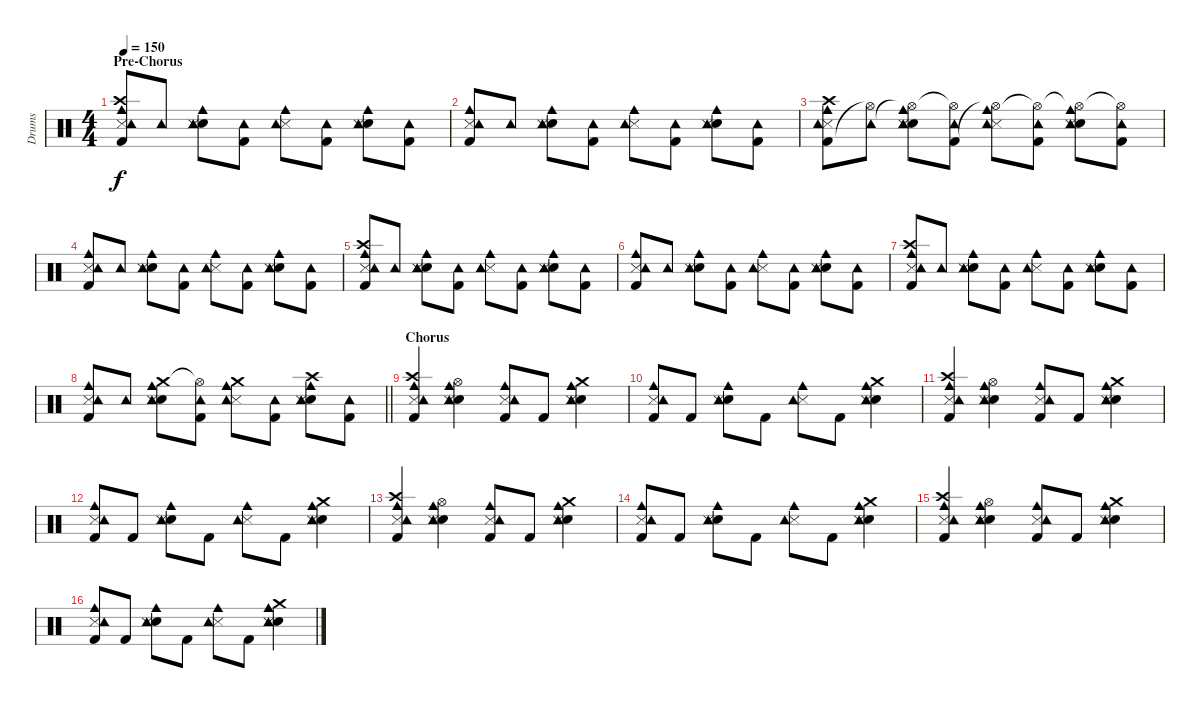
\track ("Drums" "Drums") {instrument percussion}
\staff {score}
\articulation defaults
\ts (4 4)
\section ("" "Pre-Chorus")
\tempo 150
\clef neutral
\ks c
("Kick (hit) 2" "Crash high (hit)" "Cowbell medium (hit)" "Snare (side stick) 3" "Tambourine (hit)").8{dy f} "Tambourine (hit)".8 ("Electric Snare (hit)" "Cowbell medium (hit)" "Snare (side stick) 3" "Tambourine (hit)").8 ("Kick (hit) 2" "Tambourine (hit)").8 ("Cowbell medium (hit)" "Snare (side stick) 3" "Tambourine (hit)").8 ("Kick (hit) 2" "Tambourine (hit)").8 ("Electric Snare (hit)" "Cowbell medium (hit)" "Snare (side stick) 3" "Tambourine (hit)").8 ("Kick (hit) 2" "Tambourine (hit)").8 |
("Kick (hit) 2" "Cowbell medium (hit)" "Snare (side stick) 3" "Tambourine (hit)").8 "Tambourine (hit)".8 ("Electric Snare (hit)" "Cowbell medium (hit)" "Snare (side stick) 3" "Tambourine (hit)").8 ("Kick (hit) 2" "Tambourine (hit)").8 ("Cowbell medium (hit)" "Snare (side stick) 3" "Tambourine (hit)").8 ("Kick (hit) 2" "Tambourine (hit)").8 ("Electric Snare (hit)" "Cowbell medium (hit)" "Snare (side stick) 3" "Tambourine (hit)").8 ("Kick (hit) 2" "Tambourine (hit)").8 |
("Kick (hit) 2" "Crash high (hit)" "Cowbell medium (hit)" "Snare (side stick) 3" "Tambourine (hit)").8 ("Hi-Hat (open)"{t} "Tambourine (hit)").8 ("Electric Snare (hit)" "Hi-Hat (open)"{t} "Cowbell medium (hit)" "Snare (side stick) 3" "Tambourine (hit)").8 ("Kick (hit) 2" "Hi-Hat (open)"{t} "Tambourine (hit)").8 ("Hi-Hat (open)"{t} "Cowbell medium (hit)" "Snare (side stick) 3" "Tambourine (hit)").8 ("Kick (hit) 2" "Hi-Hat (open)"{t} "Tambourine (hit)").8 ("Electric Snare (hit)" "Hi-Hat (open)"{t} "Cowbell medium (hit)" "Snare (side stick) 3" "Tambourine (hit)").8 ("Kick (hit) 2" "Hi-Hat (open)"{t} "Tambourine (hit)").8 |
("Kick (hit) 2" "Cowbell medium (hit)" "Snare (side stick) 3" "Tambourine (hit)").8 "Tambourine (hit)".8 ("Electric Snare (hit)" "Cowbell medium (hit)" "Snare (side stick) 3" "Tambourine (hit)").8 ("Kick (hit) 2" "Tambourine (hit)").8 ("Cowbell medium (hit)" "Snare (side stick) 3" "Tambourine (hit)").8 ("Kick (hit) 2" "Tambourine (hit)").8 ("Electric Snare (hit)" "Cowbell medium (hit)" "Snare (side stick) 3" "Tambourine (hit)").8 ("Kick (hit) 2" "Tambourine (hit)").8 |
("Kick (hit) 2" "Crash high (hit)" "Cowbell medium (hit)" "Snare (side stick) 3" "Tambourine (hit)").8 "Tambourine (hit)".8 ("Electric Snare (hit)" "Cowbell medium (hit)" "Snare (side stick) 3" "Tambourine (hit)").8 ("Kick (hit) 2" "Tambourine (hit)").8 ("Cowbell medium (hit)" "Snare (side stick) 3" "Tambourine (hit)").8 ("Kick (hit) 2" "Tambourine (hit)").8 ("Electric Snare (hit)" "Cowbell medium (hit)" "Snare (side stick) 3" "Tambourine (hit)").8 ("Kick (hit) 2" "Tambourine (hit)").8 |
("Kick (hit) 2" "Cowbell medium (hit)" "Snare (side stick) 3" "Tambourine (hit)").8 "Tambourine (hit)".8 ("Electric Snare (hit)" "Cowbell medium (hit)" "Snare (side stick) 3" "Tambourine (hit)").8 ("Kick (hit) 2" "Tambourine (hit)").8 ("Cowbell medium (hit)" "Snare (side stick) 3" "Tambourine (hit)").8 ("Kick (hit) 2" "Tambourine (hit)").8 ("Electric Snare (hit)" "Cowbell medium (hit)" "Snare (side stick) 3" "Tambourine (hit)").8 ("Kick (hit) 2" "Tambourine (hit)").8 |
("Kick (hit) 2" "Crash high (hit)" "Cowbell medium (hit)" "Snare (side stick) 3" "Tambourine (hit)").8 "Tambourine (hit)".8 ("Electric Snare (hit)" "Cowbell medium (hit)" "Snare (side stick) 3" "Tambourine (hit)").8 ("Kick (hit) 2" "Tambourine (hit)").8 ("Cowbell medium (hit)" "Snare (side stick) 3" "Tambourine (hit)").8 ("Kick (hit) 2" "Tambourine (hit)").8 ("Electric Snare (hit)" "Cowbell medium (hit)" "Snare (side stick) 3" "Tambourine (hit)").8 ("Kick (hit) 2" "Tambourine (hit)").8 |
\barLineRight lightlight
("Kick (hit) 2" "Cowbell medium (hit)" "Snare (side stick) 3" "Tambourine (hit)").8 "Tambourine (hit)".8 ("Electric Snare (hit)" "Crash medium (hit)" "Cowbell medium (hit)" "Snare (side stick) 3" "Tambourine (hit)").8 ("Kick (hit) 2" "Hi-Hat (open)"{t} "Tambourine (hit)").8 ("Crash medium (hit)" "Cowbell medium (hit)" "Snare (side stick) 3" "Tambourine (hit)").8 ("Kick (hit) 2" "Tambourine (hit)").8 ("Electric Snare (hit)" "Crash high (hit)" "Cowbell medium (hit)" "Snare (side stick) 3" "Tambourine (hit)").8 ("Kick (hit) 2" "Tambourine (hit)").8 |
\section ("" "Chorus")
("Kick (hit) 2" "Crash high (hit)" "Cowbell medium (hit)" "Snare (side stick) 3" "Tambourine (hit)").4 ("Electric Snare (hit)" "Hi-Hat (open)" "Cowbell medium (hit)" "Snare (side stick) 3" "Tambourine (hit)").4 ("Kick (hit) 2" "Cowbell medium (hit)" "Snare (side stick) 3" "Tambourine (hit)").8 "Kick (hit) 2".8 ("Electric Snare (hit)" "Crash medium (hit)" "Cowbell medium (hit)" "Snare (side stick) 3" "Tambourine (hit)").4 |
("Kick (hit) 2" "Cowbell medium (hit)" "Snare (side stick) 3" "Tambourine (hit)").8 "Kick (hit) 2".8 ("Electric Snare (hit)" "Cowbell medium (hit)" "Snare (side stick) 3" "Tambourine (hit)").8 "Kick (hit) 2".8 ("Cowbell medium (hit)" "Snare (side stick) 3" "Tambourine (hit)").8 "Kick (hit) 2".8 ("Electric Snare (hit)" "Crash medium (hit)" "Cowbell medium (hit)" "Snare (side stick) 3" "Tambourine (hit)").4 |
("Kick (hit) 2" "Crash high (hit)" "Cowbell medium (hit)" "Snare (side stick) 3" "Tambourine (hit)").4 ("Electric Snare (hit)" "Hi-Hat (open)" "Cowbell medium (hit)" "Snare (side stick) 3" "Tambourine (hit)").4 ("Kick (hit) 2" "Cowbell medium (hit)" "Snare (side stick) 3" "Tambourine (hit)").8 "Kick (hit) 2".8 ("Electric Snare (hit)" "Crash medium (hit)" "Cowbell medium (hit)" "Snare (side stick) 3" "Tambourine (hit)").4 |
("Kick (hit) 2" "Cowbell medium (hit)" "Snare (side stick) 3" "Tambourine (hit)").8 "Kick (hit) 2".8 ("Electric Snare (hit)" "Cowbell medium (hit)" "Snare (side stick) 3" "Tambourine (hit)").8 "Kick (hit) 2".8 ("Cowbell medium (hit)" "Snare (side stick) 3" "Tambourine (hit)").8 "Kick (hit) 2".8 ("Electric Snare (hit)" "Crash medium (hit)" "Cowbell medium (hit)" "Snare (side stick) 3" "Tambourine (hit)").4 |
("Kick (hit) 2" "Crash high (hit)" "Cowbell medium (hit)" "Snare (side stick) 3" "Tambourine (hit)").4 ("Electric Snare (hit)" "Hi-Hat (open)" "Cowbell medium (hit)" "Snare (side stick) 3" "Tambourine (hit)").4 ("Kick (hit) 2" "Cowbell medium (hit)" "Snare (side stick) 3" "Tambourine (hit)").8 "Kick (hit) 2".8 ("Electric Snare (hit)" "Crash medium (hit)" "Cowbell medium (hit)" "Snare (side stick) 3" "Tambourine (hit)").4 |
("Kick (hit) 2" "Cowbell medium (hit)" "Snare (side stick) 3" "Tambourine (hit)").8 "Kick (hit) 2".8 ("Electric Snare (hit)" "Cowbell medium (hit)" "Snare (side stick) 3" "Tambourine (hit)").8 "Kick (hit) 2".8 ("Cowbell medium (hit)" "Snare (side stick) 3" "Tambourine (hit)").8 "Kick (hit) 2".8 ("Electric Snare (hit)" "Crash medium (hit)" "Cowbell medium (hit)" "Snare (side stick) 3" "Tambourine (hit)").4 |
("Kick (hit) 2" "Crash high (hit)" "Cowbell medium (hit)" "Snare (side stick) 3" "Tambourine (hit)").4 ("Electric Snare (hit)" "Hi-Hat (open)" "Cowbell medium (hit)" "Snare (side stick) 3" "Tambourine (hit)").4 ("Kick (hit) 2" "Cowbell medium (hit)" "Snare (side stick) 3" "Tambourine (hit)").8 "Kick (hit) 2".8 ("Electric Snare (hit)" "Crash medium (hit)" "Cowbell medium (hit)" "Snare (side stick) 3" "Tambourine (hit)").4 |
("Kick (hit) 2" "Cowbell medium (hit)" "Snare (side stick) 3" "Tambourine (hit)").8 "Kick (hit) 2".8 ("Electric Snare (hit)" "Cowbell medium (hit)" "Snare (side stick) 3" "Tambourine (hit)").8 "Kick (hit) 2".8 ("Cowbell medium (hit)" "Snare (side stick) 3" "Tambourine (hit)").8 "Kick (hit) 2".8 ("Electric Snare (hit)" "Crash medium (hit)" "Cowbell medium (hit)" "Snare (side stick) 3" "Tambourine (hit)").4
